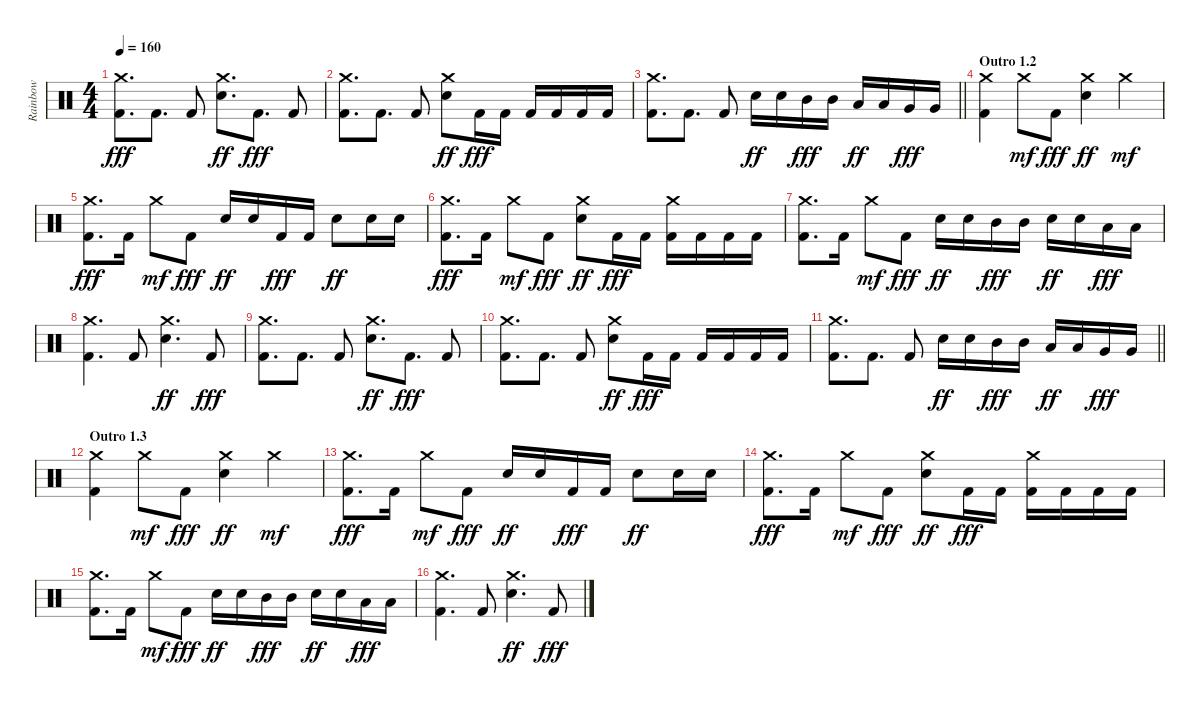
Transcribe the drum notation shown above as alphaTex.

\track ("Rainbow" "Rainbow") {instrument percussion}
\staff {score}
\articulation defaults
\ts (4 4)
\tempo 160
\clef neutral
\ks c
("Crash medium (hit)" "Kick (hit) 2").8{d dy fff} "Kick (hit) 2".8{d} "Kick (hit) 2".8 ("Crash medium (hit)" "Electric Snare (hit)").8{d dy ff} "Kick (hit) 2".8{d dy fff} "Kick (hit) 2".8 |
("Crash medium (hit)" "Kick (hit) 2").8{d} "Kick (hit) 2".8{d} "Kick (hit) 2".8 ("Crash medium (hit)" "Electric Snare (hit)").8{dy ff} "Kick (hit) 2".16{dy fff} "Kick (hit) 2".16 "Kick (hit) 2".16 "Kick (hit) 2".16 "Kick (hit) 2".16 "Kick (hit) 2".16 |
\barLineRight lightlight
("Crash medium (hit)" "Kick (hit) 2").8{d} "Kick (hit) 2".8{d} "Kick (hit) 2".8 "Electric Snare (hit)".16{dy ff} "Electric Snare (hit)".16 "Mid Tom (hit)".16{dy fff} "Mid Tom (hit)".16 "Low Tom (hit)".16{dy ff} "Low Tom (hit)".16 "Very Low Tom (hit)".16{dy fff} "Very Low Tom (hit)".16 |
\section ("" "Outro 1.2")
("Crash medium (hit)" "Kick (hit) 2").4{volume 10} "Crash medium (hit)".8{dy mf} "Kick (hit) 2".8{dy fff} ("Crash medium (hit)" "Electric Snare (hit)").4{dy ff} "Crash medium (hit)".4{dy mf} |
("Crash medium (hit)" "Kick (hit) 2").8{d dy fff} "Kick (hit) 2".16 "Crash medium (hit)".8{dy mf} "Kick (hit) 2".8{dy fff} "Electric Snare (hit)".16{dy ff} "Electric Snare (hit)".16 "Kick (hit) 2".16{dy fff} "Kick (hit) 2".16 "Electric Snare (hit)".8{dy ff} "Electric Snare (hit)".16 "Electric Snare (hit)".16 |
("Crash medium (hit)" "Kick (hit) 2").8{d dy fff} "Kick (hit) 2".16 "Crash medium (hit)".8{dy mf} "Kick (hit) 2".8{dy fff} ("Crash medium (hit)" "Electric Snare (hit)").8{dy ff} "Kick (hit) 2".16{dy fff} "Kick (hit) 2".16 ("Crash medium (hit)" "Kick (hit) 2").16 "Kick (hit) 2".16 "Kick (hit) 2".16 "Kick (hit) 2".16 |
("Crash medium (hit)" "Kick (hit) 2").8{d} "Kick (hit) 2".16 "Crash medium (hit)".8{dy mf} "Kick (hit) 2".8{dy fff} "Electric Snare (hit)".16{dy ff} "Electric Snare (hit)".16 "Mid Tom (hit)".16{dy fff} "Mid Tom (hit)".16 "Electric Snare (hit)".16{dy ff} "Electric Snare (hit)".16 "Low Tom (hit)".16{dy fff} "Low Tom (hit)".16 |
("Crash medium (hit)" "Kick (hit) 2").4{d volume 7} "Kick (hit) 2".8 ("Crash medium (hit)" "Electric Snare (hit)").4{d dy ff} "Kick (hit) 2".8{dy fff} |
("Crash medium (hit)" "Kick (hit) 2").8{d} "Kick (hit) 2".8{d} "Kick (hit) 2".8 ("Crash medium (hit)" "Electric Snare (hit)").8{d dy ff} "Kick (hit) 2".8{d dy fff} "Kick (hit) 2".8 |
("Crash medium (hit)" "Kick (hit) 2").8{d} "Kick (hit) 2".8{d} "Kick (hit) 2".8 ("Crash medium (hit)" "Electric Snare (hit)").8{dy ff} "Kick (hit) 2".16{dy fff} "Kick (hit) 2".16 "Kick (hit) 2".16 "Kick (hit) 2".16 "Kick (hit) 2".16 "Kick (hit) 2".16 |
\barLineRight lightlight
("Crash medium (hit)" "Kick (hit) 2").8{d} "Kick (hit) 2".8{d} "Kick (hit) 2".8 "Electric Snare (hit)".16{dy ff} "Electric Snare (hit)".16 "Mid Tom (hit)".16{dy fff} "Mid Tom (hit)".16 "Low Tom (hit)".16{dy ff} "Low Tom (hit)".16 "Very Low Tom (hit)".16{dy fff} "Very Low Tom (hit)".16 |
\section ("" "Outro 1.3")
("Crash medium (hit)" "Kick (hit) 2").4{volume 4} "Crash medium (hit)".8{dy mf} "Kick (hit) 2".8{dy fff} ("Crash medium (hit)" "Electric Snare (hit)").4{dy ff} "Crash medium (hit)".4{dy mf} |
("Crash medium (hit)" "Kick (hit) 2").8{d dy fff} "Kick (hit) 2".16 "Crash medium (hit)".8{dy mf} "Kick (hit) 2".8{dy fff} "Electric Snare (hit)".16{dy ff} "Electric Snare (hit)".16 "Kick (hit) 2".16{dy fff} "Kick (hit) 2".16 "Electric Snare (hit)".8{dy ff} "Electric Snare (hit)".16 "Electric Snare (hit)".16 |
("Crash medium (hit)" "Kick (hit) 2").8{d dy fff} "Kick (hit) 2".16 "Crash medium (hit)".8{dy mf} "Kick (hit) 2".8{dy fff} ("Crash medium (hit)" "Electric Snare (hit)").8{dy ff} "Kick (hit) 2".16{dy fff} "Kick (hit) 2".16 ("Crash medium (hit)" "Kick (hit) 2").16 "Kick (hit) 2".16 "Kick (hit) 2".16 "Kick (hit) 2".16 |
("Crash medium (hit)" "Kick (hit) 2").8{d} "Kick (hit) 2".16 "Crash medium (hit)".8{dy mf} "Kick (hit) 2".8{dy fff} "Electric Snare (hit)".16{dy ff} "Electric Snare (hit)".16 "Mid Tom (hit)".16{dy fff} "Mid Tom (hit)".16 "Electric Snare (hit)".16{dy ff} "Electric Snare (hit)".16 "Low Tom (hit)".16{dy fff} "Low Tom (hit)".16 |
("Crash medium (hit)" "Kick (hit) 2").4{d volume 0} "Kick (hit) 2".8 ("Crash medium (hit)" "Electric Snare (hit)").4{d dy ff} "Kick (hit) 2".8{dy fff}
